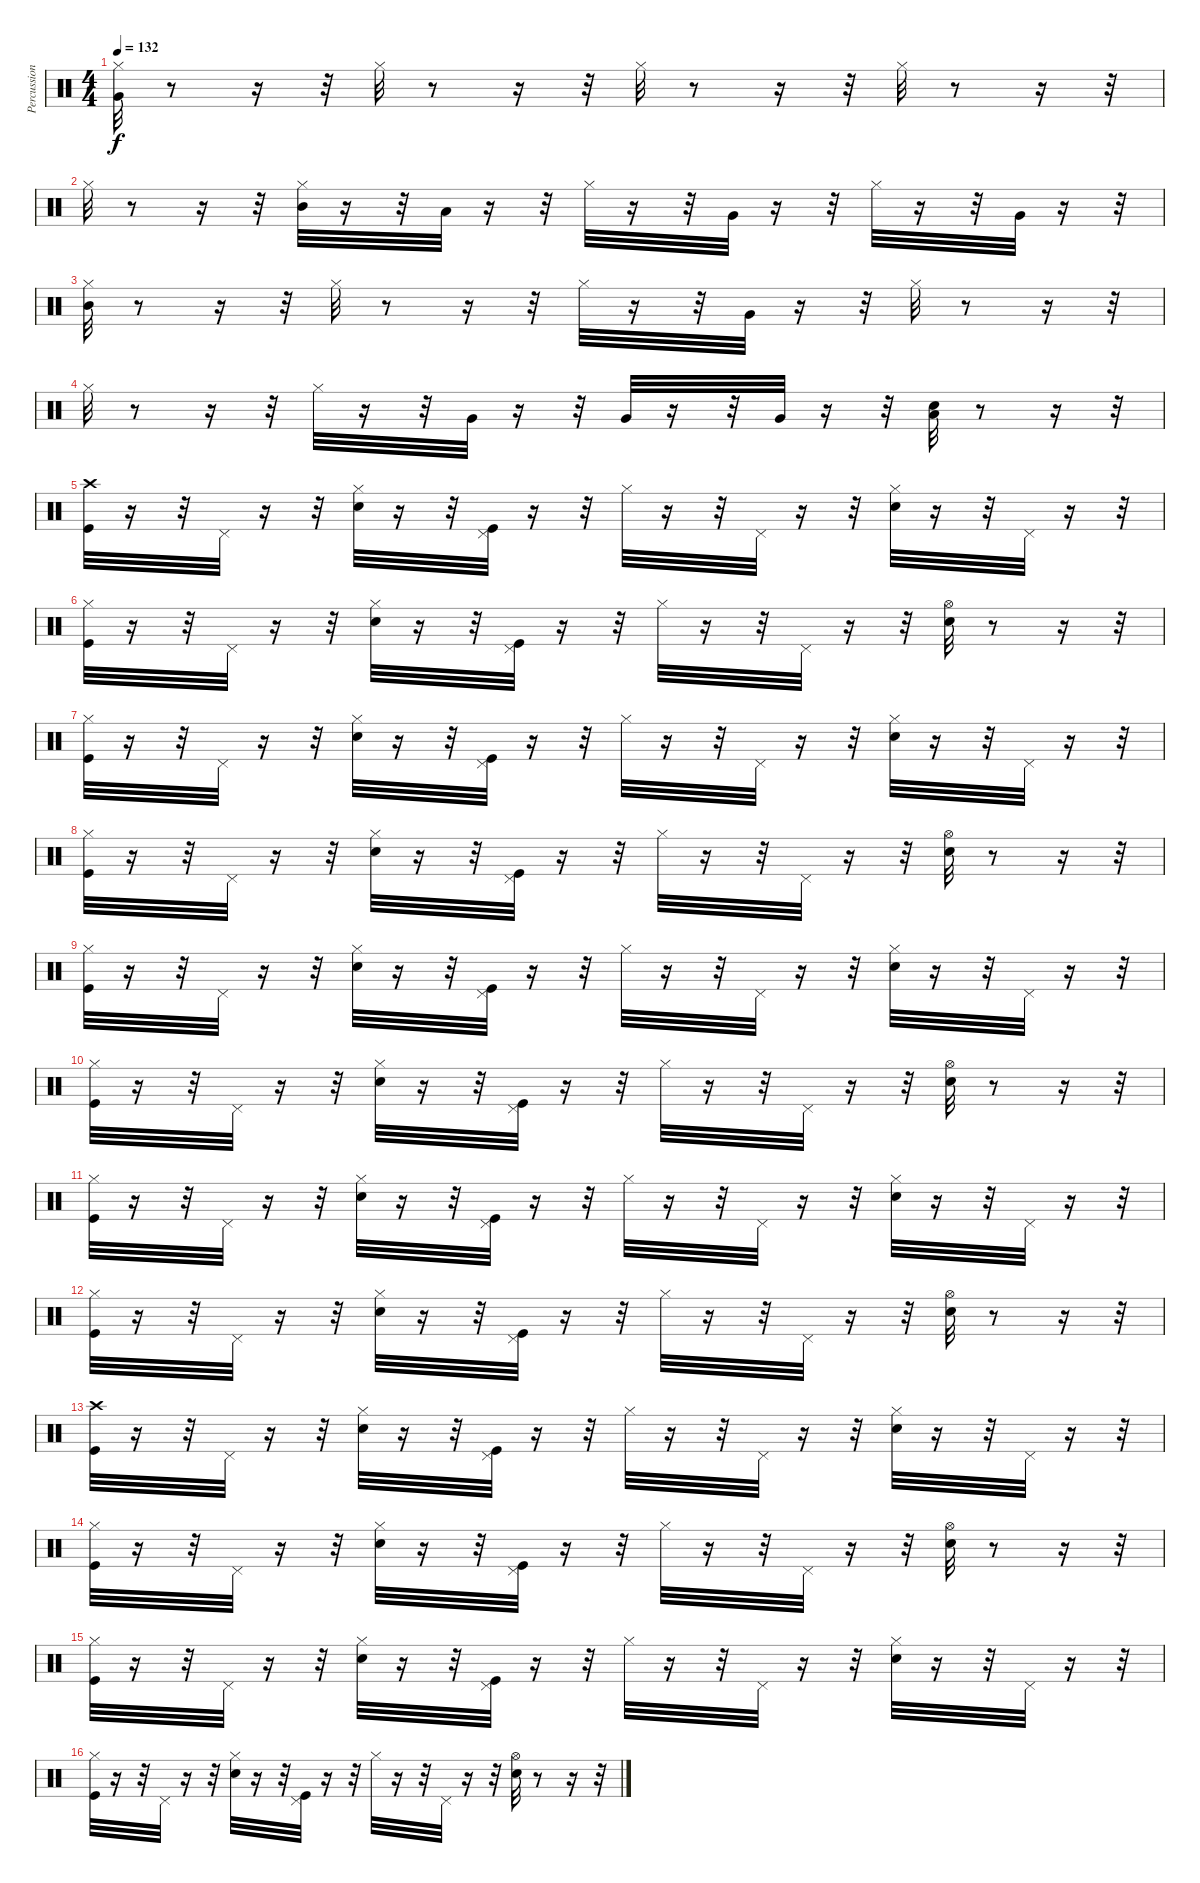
\track ("Percussions" "Percussion") {instrument percussion}
\staff {score}
\articulation defaults
\ts (4 4)
\tempo 132
\clef neutral
\ks c
("Hi-Hat (closed)" "Very Low Tom (hit)").32{dy f} r.8 r.16 r.32 "Hi-Hat (closed)".32 r.8 r.16 r.32 "Hi-Hat (closed)".32 r.8 r.16 r.32 "Hi-Hat (closed)".32 r.8 r.16 r.32 |
"Hi-Hat (closed)".32 r.8 r.16 r.32 ("Mid Tom (hit)" "Hi-Hat (closed)").32 r.16 r.32 "Low Tom (hit)".32 r.16 r.32 "Hi-Hat (closed)".32 r.16 r.32 "Very Low Tom (hit)".32 r.16 r.32 "Hi-Hat (closed)".32 r.16 r.32 "Very Low Tom (hit)".32 r.16 r.32 |
("Hi-Hat (closed)" "Mid Tom (hit)").32 r.8 r.16 r.32 "Hi-Hat (closed)".32 r.8 r.16 r.32 "Hi-Hat (closed)".32 r.16 r.32 "Very Low Tom (hit)".32 r.16 r.32 "Hi-Hat (closed)".32 r.8 r.16 r.32 |
"Hi-Hat (closed)".32 r.8 r.16 r.32 "Hi-Hat (closed)".32 r.16 r.32 "Very Low Tom (hit)".32 r.16 r.32 "Very Low Tom (hit)".32 r.16 r.32 "Very Low Tom (hit)".32 r.16 r.32 ("Low Floor Tom (hit)" "Electric Snare (hit)").32 r.8 r.16 r.32 |
("Crash high (hit)" "Kick (hit)").32 r.16 r.32 "Pedal Hi-Hat (hit)".32 r.16 r.32 ("Hi-Hat (closed)" "Electric Snare (hit)").32 r.16 r.32 ("Pedal Hi-Hat (hit)" "Kick (hit)").32 r.16 r.32 "Hi-Hat (closed)".32 r.16 r.32 "Pedal Hi-Hat (hit)".32 r.16 r.32 ("Hi-Hat (closed)" "Electric Snare (hit)").32 r.16 r.32 "Pedal Hi-Hat (hit)".32 r.16 r.32 |
("Hi-Hat (closed)" "Kick (hit)").32 r.16 r.32 "Pedal Hi-Hat (hit)".32 r.16 r.32 ("Hi-Hat (closed)" "Electric Snare (hit)").32 r.16 r.32 ("Pedal Hi-Hat (hit)" "Kick (hit)").32 r.16 r.32 "Hi-Hat (closed)".32 r.16 r.32 "Pedal Hi-Hat (hit)".32 r.16 r.32 ("Hi-Hat (open)" "Electric Snare (hit)").32 r.8 r.16 r.32 |
("Hi-Hat (closed)" "Kick (hit)").32 r.16 r.32 "Pedal Hi-Hat (hit)".32 r.16 r.32 ("Hi-Hat (closed)" "Electric Snare (hit)").32 r.16 r.32 ("Pedal Hi-Hat (hit)" "Kick (hit)").32 r.16 r.32 "Hi-Hat (closed)".32 r.16 r.32 "Pedal Hi-Hat (hit)".32 r.16 r.32 ("Hi-Hat (closed)" "Electric Snare (hit)").32 r.16 r.32 "Pedal Hi-Hat (hit)".32 r.16 r.32 |
("Hi-Hat (closed)" "Kick (hit)").32 r.16 r.32 "Pedal Hi-Hat (hit)".32 r.16 r.32 ("Hi-Hat (closed)" "Electric Snare (hit)").32 r.16 r.32 ("Pedal Hi-Hat (hit)" "Kick (hit)").32 r.16 r.32 "Hi-Hat (closed)".32 r.16 r.32 "Pedal Hi-Hat (hit)".32 r.16 r.32 ("Hi-Hat (open)" "Electric Snare (hit)").32 r.8 r.16 r.32 |
("Hi-Hat (closed)" "Kick (hit)").32 r.16 r.32 "Pedal Hi-Hat (hit)".32 r.16 r.32 ("Hi-Hat (closed)" "Electric Snare (hit)").32 r.16 r.32 ("Pedal Hi-Hat (hit)" "Kick (hit)").32 r.16 r.32 "Hi-Hat (closed)".32 r.16 r.32 "Pedal Hi-Hat (hit)".32 r.16 r.32 ("Hi-Hat (closed)" "Electric Snare (hit)").32 r.16 r.32 "Pedal Hi-Hat (hit)".32 r.16 r.32 |
("Hi-Hat (closed)" "Kick (hit)").32 r.16 r.32 "Pedal Hi-Hat (hit)".32 r.16 r.32 ("Hi-Hat (closed)" "Electric Snare (hit)").32 r.16 r.32 ("Pedal Hi-Hat (hit)" "Kick (hit)").32 r.16 r.32 "Hi-Hat (closed)".32 r.16 r.32 "Pedal Hi-Hat (hit)".32 r.16 r.32 ("Hi-Hat (open)" "Electric Snare (hit)").32 r.8 r.16 r.32 |
("Hi-Hat (closed)" "Kick (hit)").32 r.16 r.32 "Pedal Hi-Hat (hit)".32 r.16 r.32 ("Hi-Hat (closed)" "Electric Snare (hit)").32 r.16 r.32 ("Pedal Hi-Hat (hit)" "Kick (hit)").32 r.16 r.32 "Hi-Hat (closed)".32 r.16 r.32 "Pedal Hi-Hat (hit)".32 r.16 r.32 ("Hi-Hat (closed)" "Electric Snare (hit)").32 r.16 r.32 "Pedal Hi-Hat (hit)".32 r.16 r.32 |
("Hi-Hat (closed)" "Kick (hit)").32 r.16 r.32 "Pedal Hi-Hat (hit)".32 r.16 r.32 ("Hi-Hat (closed)" "Electric Snare (hit)").32 r.16 r.32 ("Pedal Hi-Hat (hit)" "Kick (hit)").32 r.16 r.32 "Hi-Hat (closed)".32 r.16 r.32 "Pedal Hi-Hat (hit)".32 r.16 r.32 ("Hi-Hat (open)" "Electric Snare (hit)").32 r.8 r.16 r.32 |
("Crash high (hit)" "Kick (hit)").32 r.16 r.32 "Pedal Hi-Hat (hit)".32 r.16 r.32 ("Hi-Hat (closed)" "Electric Snare (hit)").32 r.16 r.32 ("Pedal Hi-Hat (hit)" "Kick (hit)").32 r.16 r.32 "Hi-Hat (closed)".32 r.16 r.32 "Pedal Hi-Hat (hit)".32 r.16 r.32 ("Hi-Hat (closed)" "Electric Snare (hit)").32 r.16 r.32 "Pedal Hi-Hat (hit)".32 r.16 r.32 |
("Hi-Hat (closed)" "Kick (hit)").32 r.16 r.32 "Pedal Hi-Hat (hit)".32 r.16 r.32 ("Hi-Hat (closed)" "Electric Snare (hit)").32 r.16 r.32 ("Pedal Hi-Hat (hit)" "Kick (hit)").32 r.16 r.32 "Hi-Hat (closed)".32 r.16 r.32 "Pedal Hi-Hat (hit)".32 r.16 r.32 ("Hi-Hat (open)" "Electric Snare (hit)").32 r.8 r.16 r.32 |
("Hi-Hat (closed)" "Kick (hit)").32 r.16 r.32 "Pedal Hi-Hat (hit)".32 r.16 r.32 ("Hi-Hat (closed)" "Electric Snare (hit)").32 r.16 r.32 ("Pedal Hi-Hat (hit)" "Kick (hit)").32 r.16 r.32 "Hi-Hat (closed)".32 r.16 r.32 "Pedal Hi-Hat (hit)".32 r.16 r.32 ("Hi-Hat (closed)" "Electric Snare (hit)").32 r.16 r.32 "Pedal Hi-Hat (hit)".32 r.16 r.32 |
("Hi-Hat (closed)" "Kick (hit)").32 r.16 r.32 "Pedal Hi-Hat (hit)".32 r.16 r.32 ("Hi-Hat (closed)" "Electric Snare (hit)").32 r.16 r.32 ("Pedal Hi-Hat (hit)" "Kick (hit)").32 r.16 r.32 "Hi-Hat (closed)".32 r.16 r.32 "Pedal Hi-Hat (hit)".32 r.16 r.32 ("Hi-Hat (open)" "Electric Snare (hit)").32 r.8 r.16 r.32
